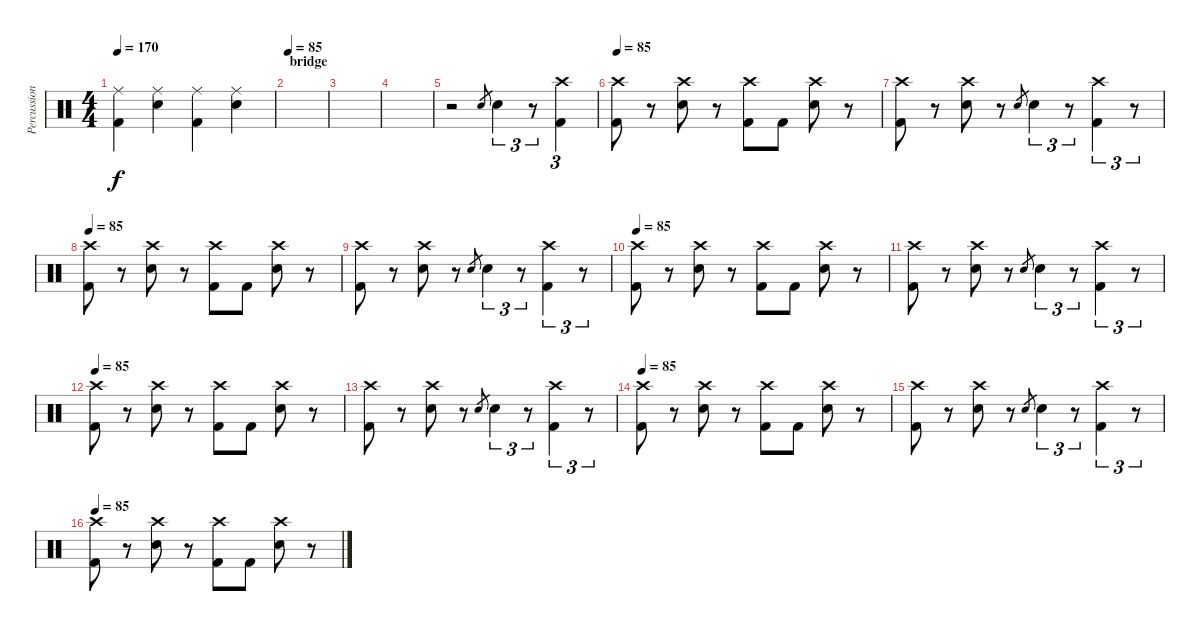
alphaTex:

\track ("Percussion" "Percussion") {instrument percussion}
\staff {score}
\articulation defaults
\ts (4 4)
\tempo 170
\clef neutral
\ks c
("Ride (middle)" "Kick (hit) 2").4{dy f} ("Ride (middle)" "Electric Snare (hit)").4 ("Ride (middle)" "Kick (hit) 2").4 ("Ride (middle)" "Electric Snare (hit)").4 |
\section ("" "bridge")
\tempo 85
|
|
|
r.2 "Electric Snare (hit)".8{gr} "Electric Snare (hit)".4{tu (3 2)} r.8{tu (3 2)} ("Crash high (hit)" "Kick (hit) 2").4{tu (3 2)} |
\tempo 85
("Crash high (hit)" "Kick (hit) 2").8 r.8 ("Crash high (hit)" "Electric Snare (hit)").8 r.8 ("Crash high (hit)" "Kick (hit) 2").8 "Kick (hit) 2".8 ("Crash high (hit)" "Electric Snare (hit)").8 r.8 |
("Crash high (hit)" "Kick (hit) 2").8 r.8 ("Crash high (hit)" "Electric Snare (hit)").8 r.8 "Electric Snare (hit)".8{gr} "Electric Snare (hit)".4{tu (3 2)} r.8{tu (3 2)} ("Crash high (hit)" "Kick (hit) 2").4{tu (3 2)} r.8{tu (3 2)} |
\tempo 85
("Crash high (hit)" "Kick (hit) 2").8 r.8 ("Crash high (hit)" "Electric Snare (hit)").8 r.8 ("Crash high (hit)" "Kick (hit) 2").8 "Kick (hit) 2".8 ("Crash high (hit)" "Electric Snare (hit)").8 r.8 |
("Crash high (hit)" "Kick (hit) 2").8 r.8 ("Crash high (hit)" "Electric Snare (hit)").8 r.8 "Electric Snare (hit)".8{gr} "Electric Snare (hit)".4{tu (3 2)} r.8{tu (3 2)} ("Crash high (hit)" "Kick (hit) 2").4{tu (3 2)} r.8{tu (3 2)} |
\tempo 85
("Crash high (hit)" "Kick (hit) 2").8 r.8 ("Crash high (hit)" "Electric Snare (hit)").8 r.8 ("Crash high (hit)" "Kick (hit) 2").8 "Kick (hit) 2".8 ("Crash high (hit)" "Electric Snare (hit)").8 r.8 |
("Crash high (hit)" "Kick (hit) 2").8 r.8 ("Crash high (hit)" "Electric Snare (hit)").8 r.8 "Electric Snare (hit)".8{gr} "Electric Snare (hit)".4{tu (3 2)} r.8{tu (3 2)} ("Crash high (hit)" "Kick (hit) 2").4{tu (3 2)} r.8{tu (3 2)} |
\tempo 85
("Crash high (hit)" "Kick (hit) 2").8 r.8 ("Crash high (hit)" "Electric Snare (hit)").8 r.8 ("Crash high (hit)" "Kick (hit) 2").8 "Kick (hit) 2".8 ("Crash high (hit)" "Electric Snare (hit)").8 r.8 |
("Crash high (hit)" "Kick (hit) 2").8 r.8 ("Crash high (hit)" "Electric Snare (hit)").8 r.8 "Electric Snare (hit)".8{gr} "Electric Snare (hit)".4{tu (3 2)} r.8{tu (3 2)} ("Crash high (hit)" "Kick (hit) 2").4{tu (3 2)} r.8{tu (3 2)} |
\tempo 85
("Crash high (hit)" "Kick (hit) 2").8 r.8 ("Crash high (hit)" "Electric Snare (hit)").8 r.8 ("Crash high (hit)" "Kick (hit) 2").8 "Kick (hit) 2".8 ("Crash high (hit)" "Electric Snare (hit)").8 r.8 |
("Crash high (hit)" "Kick (hit) 2").8 r.8 ("Crash high (hit)" "Electric Snare (hit)").8 r.8 "Electric Snare (hit)".8{gr} "Electric Snare (hit)".4{tu (3 2)} r.8{tu (3 2)} ("Crash high (hit)" "Kick (hit) 2").4{tu (3 2)} r.8{tu (3 2)} |
\tempo 85
("Crash high (hit)" "Kick (hit) 2").8 r.8 ("Crash high (hit)" "Electric Snare (hit)").8 r.8 ("Crash high (hit)" "Kick (hit) 2").8 "Kick (hit) 2".8 ("Crash high (hit)" "Electric Snare (hit)").8 r.8
